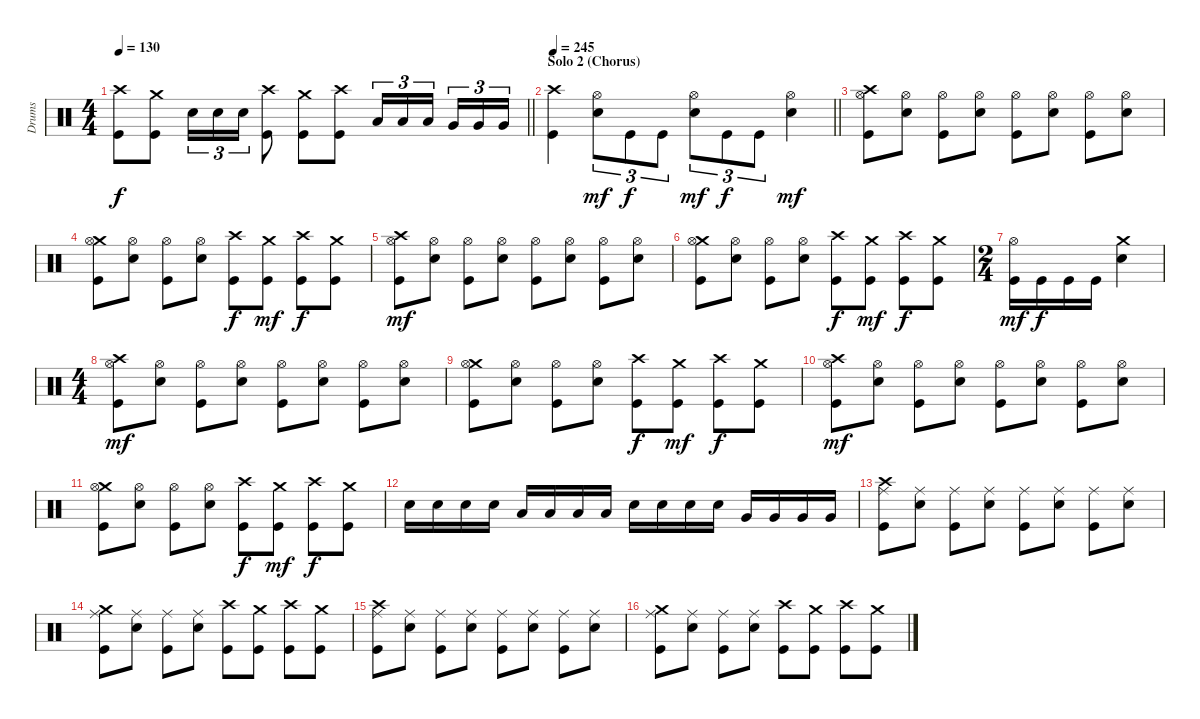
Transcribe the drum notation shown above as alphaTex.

\track ("Drums" "Drums") {instrument percussion}
\staff {score}
\articulation defaults
\ts (4 4)
\tempo 130
\clef neutral
\barLineRight lightlight
\ks c
("Crash high (hit)" "Kick (hit)").8{dy f} ("Crash medium (hit)" "Kick (hit)").8 "Electric Snare (hit)".16{tu (3 2)} "Electric Snare (hit)".16{tu (3 2)} "Electric Snare (hit)".16{tu (3 2)} ("Crash high (hit)" "Kick (hit)").8 ("Crash medium (hit)" "Kick (hit)").8 ("Crash high (hit)" "Kick (hit)").8 "Low Tom (hit)".16{tu (3 2)} "Low Tom (hit)".16{tu (3 2)} "Low Tom (hit)".16{tu (3 2) beam splitsecondary} "Very Low Tom (hit)".16{tu (3 2)} "Very Low Tom (hit)".16{tu (3 2)} "Very Low Tom (hit)".16{tu (3 2)} |
\section ("" "Solo 2 (Chorus)")
\tempo 245
\barLineRight lightlight
("Crash high (hit)" "Kick (hit)").4 ("Hi-Hat (open)" "Electric Snare (hit)").8{tu (3 2) dy mf} "Kick (hit)".8{tu (3 2) dy f} "Kick (hit)".8{tu (3 2)} ("Hi-Hat (open)" "Electric Snare (hit)").8{tu (3 2) dy mf} "Kick (hit)".8{tu (3 2) dy f} "Kick (hit)".8{tu (3 2)} ("Hi-Hat (open)" "Electric Snare (hit)").4{dy mf} |
("Crash high (hit)" "Hi-Hat (open)" "Kick (hit)").8 ("Hi-Hat (open)" "Electric Snare (hit)").8 ("Hi-Hat (open)" "Kick (hit)").8 ("Hi-Hat (open)" "Electric Snare (hit)").8 ("Hi-Hat (open)" "Kick (hit)").8 ("Hi-Hat (open)" "Electric Snare (hit)").8 ("Hi-Hat (open)" "Kick (hit)").8 ("Hi-Hat (open)" "Electric Snare (hit)").8 |
("Crash medium (hit)" "Hi-Hat (open)" "Kick (hit)").8 ("Hi-Hat (open)" "Electric Snare (hit)").8 ("Hi-Hat (open)" "Kick (hit)").8 ("Hi-Hat (open)" "Electric Snare (hit)").8 ("Crash high (hit)" "Kick (hit)").8{dy f} ("Crash medium (hit)" "Kick (hit)").8{dy mf} ("Crash high (hit)" "Kick (hit)").8{dy f} ("Crash medium (hit)" "Kick (hit)").8 |
("Crash high (hit)" "Hi-Hat (open)" "Kick (hit)").8{dy mf} ("Hi-Hat (open)" "Electric Snare (hit)").8 ("Hi-Hat (open)" "Kick (hit)").8 ("Hi-Hat (open)" "Electric Snare (hit)").8 ("Hi-Hat (open)" "Kick (hit)").8 ("Hi-Hat (open)" "Electric Snare (hit)").8 ("Hi-Hat (open)" "Kick (hit)").8 ("Hi-Hat (open)" "Electric Snare (hit)").8 |
("Crash medium (hit)" "Hi-Hat (open)" "Kick (hit)").8 ("Hi-Hat (open)" "Electric Snare (hit)").8 ("Hi-Hat (open)" "Kick (hit)").8 ("Hi-Hat (open)" "Electric Snare (hit)").8 ("Crash high (hit)" "Kick (hit)").8{dy f} ("Crash medium (hit)" "Kick (hit)").8{dy mf} ("Crash high (hit)" "Kick (hit)").8{dy f} ("Crash medium (hit)" "Kick (hit)").8 |
\ts (2 4)
("Hi-Hat (open)" "Kick (hit)").16{dy mf} "Kick (hit)".16{dy f} "Kick (hit)".16 "Kick (hit)".16 ("Crash medium (hit)" "Electric Snare (hit)").4 |
\ts (4 4)
("Crash high (hit)" "Hi-Hat (open)" "Kick (hit)").8{dy mf} ("Hi-Hat (open)" "Electric Snare (hit)").8 ("Hi-Hat (open)" "Kick (hit)").8 ("Hi-Hat (open)" "Electric Snare (hit)").8 ("Hi-Hat (open)" "Kick (hit)").8 ("Hi-Hat (open)" "Electric Snare (hit)").8 ("Hi-Hat (open)" "Kick (hit)").8 ("Hi-Hat (open)" "Electric Snare (hit)").8 |
("Crash medium (hit)" "Hi-Hat (open)" "Kick (hit)").8 ("Hi-Hat (open)" "Electric Snare (hit)").8 ("Hi-Hat (open)" "Kick (hit)").8 ("Hi-Hat (open)" "Electric Snare (hit)").8 ("Crash high (hit)" "Kick (hit)").8{dy f} ("Crash medium (hit)" "Kick (hit)").8{dy mf} ("Crash high (hit)" "Kick (hit)").8{dy f} ("Crash medium (hit)" "Kick (hit)").8 |
("Crash high (hit)" "Hi-Hat (open)" "Kick (hit)").8{dy mf} ("Hi-Hat (open)" "Electric Snare (hit)").8 ("Hi-Hat (open)" "Kick (hit)").8 ("Hi-Hat (open)" "Electric Snare (hit)").8 ("Hi-Hat (open)" "Kick (hit)").8 ("Hi-Hat (open)" "Electric Snare (hit)").8 ("Hi-Hat (open)" "Kick (hit)").8 ("Hi-Hat (open)" "Electric Snare (hit)").8 |
("Crash medium (hit)" "Hi-Hat (open)" "Kick (hit)").8 ("Hi-Hat (open)" "Electric Snare (hit)").8 ("Hi-Hat (open)" "Kick (hit)").8 ("Hi-Hat (open)" "Electric Snare (hit)").8 ("Crash high (hit)" "Kick (hit)").8{dy f} ("Crash medium (hit)" "Kick (hit)").8{dy mf} ("Crash high (hit)" "Kick (hit)").8{dy f} ("Crash medium (hit)" "Kick (hit)").8 |
"Electric Snare (hit)".16 "Electric Snare (hit)".16 "Electric Snare (hit)".16 "Electric Snare (hit)".16 "Low Tom (hit)".16 "Low Tom (hit)".16 "Low Tom (hit)".16 "Low Tom (hit)".16 "Electric Snare (hit)".16 "Electric Snare (hit)".16 "Electric Snare (hit)".16 "Electric Snare (hit)".16 "Very Low Tom (hit)".16 "Very Low Tom (hit)".16 "Very Low Tom (hit)".16 "Very Low Tom (hit)".16 |
("Crash high (hit)" "Ride (middle)" "Kick (hit)").8 ("Ride (middle)" "Electric Snare (hit)").8 ("Ride (middle)" "Kick (hit)").8 ("Ride (middle)" "Electric Snare (hit)").8 ("Ride (middle)" "Kick (hit)").8 ("Ride (middle)" "Electric Snare (hit)").8 ("Ride (middle)" "Kick (hit)").8 ("Ride (middle)" "Electric Snare (hit)").8 |
("Crash medium (hit)" "Ride (middle)" "Kick (hit)").8 ("Ride (middle)" "Electric Snare (hit)").8 ("Ride (middle)" "Kick (hit)").8 ("Ride (middle)" "Electric Snare (hit)").8 ("Crash high (hit)" "Kick (hit)").8 ("Crash medium (hit)" "Kick (hit)").8 ("Crash high (hit)" "Kick (hit)").8 ("Crash medium (hit)" "Kick (hit)").8 |
("Crash high (hit)" "Ride (middle)" "Kick (hit)").8 ("Ride (middle)" "Electric Snare (hit)").8 ("Ride (middle)" "Kick (hit)").8 ("Ride (middle)" "Electric Snare (hit)").8 ("Ride (middle)" "Kick (hit)").8 ("Ride (middle)" "Electric Snare (hit)").8 ("Ride (middle)" "Kick (hit)").8 ("Ride (middle)" "Electric Snare (hit)").8 |
("Crash medium (hit)" "Ride (middle)" "Kick (hit)").8 ("Ride (middle)" "Electric Snare (hit)").8 ("Ride (middle)" "Kick (hit)").8 ("Ride (middle)" "Electric Snare (hit)").8 ("Crash high (hit)" "Kick (hit)").8 ("Crash medium (hit)" "Kick (hit)").8 ("Crash high (hit)" "Kick (hit)").8 ("Crash medium (hit)" "Kick (hit)").8
